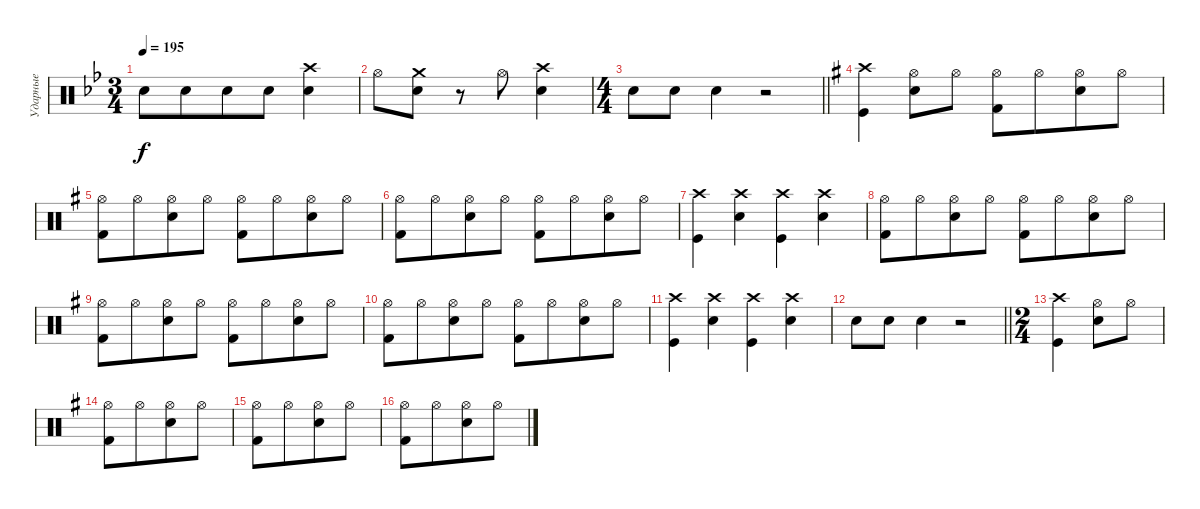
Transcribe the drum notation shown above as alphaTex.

\track ("Ударные" "Ударные") {instrument percussion}
\staff {score}
\articulation defaults
\ts (3 4)
\tempo 195
\clef neutral
\ks gminor "Snare (hit) 2".8{dy f} "Snare (hit) 2".8{beam merge} "Snare (hit) 2".8 "Snare (hit) 2".8
("Snare (hit) 2" "Crash high (hit)").4 |
"Hi-Hat (open)".8 ("Snare (hit) 2" "Crash medium (hit)").8 r.8 "Hi-Hat (open)".8 ("Snare (hit) 2" "Crash high (hit)").4 |
\ts (4 4)
\barLineRight lightlight "Snare (hit) 2".8 "Snare (hit) 2".8 "Snare (hit) 2".4
r.2 |
\section ("" "")
\ks eminor
("Kick (hit)" "Crash high (hit)").4 ("Snare (hit) 2" "Hi-Hat (open)").8 "Hi-Hat (open)".8 ("Kick (hit) 2" "Hi-Hat (open)").8 "Hi-Hat (open)".8{beam merge} ("Snare (hit) 2" "Hi-Hat (open)").8 "Hi-Hat (open)".8 |
("Kick (hit) 2" "Hi-Hat (open)").8 "Hi-Hat (open)".8{beam merge} ("Snare (hit) 2" "Hi-Hat (open)").8 "Hi-Hat (open)".8 ("Kick (hit) 2" "Hi-Hat (open)").8 "Hi-Hat (open)".8{beam merge} ("Snare (hit) 2" "Hi-Hat (open)").8 "Hi-Hat (open)".8 |
("Kick (hit) 2" "Hi-Hat (open)").8 "Hi-Hat (open)".8{beam merge} ("Snare (hit) 2" "Hi-Hat (open)").8 "Hi-Hat (open)".8 ("Kick (hit) 2" "Hi-Hat (open)").8 "Hi-Hat (open)".8{beam merge} ("Snare (hit) 2" "Hi-Hat (open)").8 "Hi-Hat (open)".8 |
("Kick (hit)" "Crash high (hit)").4 ("Snare (hit) 2" "Crash high (hit)").4 ("Kick (hit)" "Crash high (hit)").4 ("Snare (hit) 2" "Crash high (hit)").4 |
("Kick (hit) 2" "Hi-Hat (open)").8 "Hi-Hat (open)".8{beam merge} ("Snare (hit) 2" "Hi-Hat (open)").8 "Hi-Hat (open)".8 ("Kick (hit) 2" "Hi-Hat (open)").8 "Hi-Hat (open)".8{beam merge} ("Snare (hit) 2" "Hi-Hat (open)").8 "Hi-Hat (open)".8 |
("Kick (hit) 2" "Hi-Hat (open)").8 "Hi-Hat (open)".8{beam merge} ("Snare (hit) 2" "Hi-Hat (open)").8 "Hi-Hat (open)".8 ("Kick (hit) 2" "Hi-Hat (open)").8 "Hi-Hat (open)".8{beam merge} ("Snare (hit) 2" "Hi-Hat (open)").8 "Hi-Hat (open)".8 |
("Kick (hit) 2" "Hi-Hat (open)").8 "Hi-Hat (open)".8{beam merge} ("Snare (hit) 2" "Hi-Hat (open)").8 "Hi-Hat (open)".8 ("Kick (hit) 2" "Hi-Hat (open)").8 "Hi-Hat (open)".8{beam merge} ("Snare (hit) 2" "Hi-Hat (open)").8 "Hi-Hat (open)".8 |
("Kick (hit)" "Crash high (hit)").4 ("Snare (hit) 2" "Crash high (hit)").4 ("Kick (hit)" "Crash high (hit)").4 ("Snare (hit) 2" "Crash high (hit)").4 |
\barLineRight lightlight "Snare (hit) 2".8 "Snare (hit) 2".8 "Snare (hit) 2".4
r.2 |
\ts (2 4)
\section ("" "")
("Kick (hit)" "Crash high (hit)").4 ("Snare (hit) 2" "Hi-Hat (open)").8 "Hi-Hat (open)".8 |
("Kick (hit) 2" "Hi-Hat (open)").8 "Hi-Hat (open)".8{beam merge} ("Snare (hit) 2" "Hi-Hat (open)").8 "Hi-Hat (open)".8 |
("Kick (hit) 2" "Hi-Hat (open)").8 "Hi-Hat (open)".8{beam merge} ("Snare (hit) 2" "Hi-Hat (open)").8 "Hi-Hat (open)".8 |
("Kick (hit) 2" "Hi-Hat (open)").8 "Hi-Hat (open)".8{beam merge} ("Snare (hit) 2" "Hi-Hat (open)").8 "Hi-Hat (open)".8
